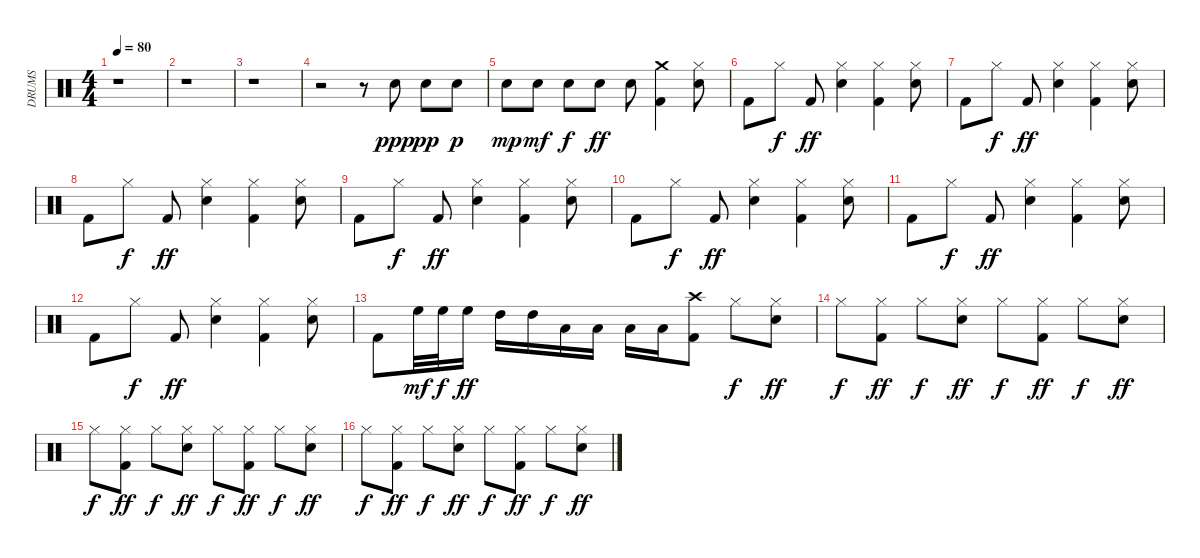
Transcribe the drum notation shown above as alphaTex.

\track ("DRUMS                               " "DRUMS     ") {instrument percussion}
\staff {score}
\articulation defaults
\ts (4 4)
\tempo 80
\clef neutral
\ks c
r.1{dy ff} |
r.1 |
r.1 |
r.2 r.8 "Snare (hit) 2".8{dy ppp} "Snare (hit) 2".8{dy pp} "Snare (hit) 2".8{dy p} |
"Snare (hit) 2".8{dy mp} "Snare (hit) 2".8{dy mf} "Snare (hit) 2".8{dy f} "Snare (hit) 2".8{dy ff} "Snare (hit) 2".8 ("Crash medium (hit)" "Kick (hit) 2").4 ("Snare (hit) 2" "Hi-Hat (closed)").8 |
"Kick (hit) 2".8 "Hi-Hat (closed)".8{dy f} "Kick (hit) 2".8{dy ff} ("Snare (hit) 2" "Hi-Hat (closed)").4 ("Kick (hit) 2" "Hi-Hat (closed)").4 ("Snare (hit) 2" "Hi-Hat (closed)").8 |
"Kick (hit) 2".8 "Hi-Hat (closed)".8{dy f} "Kick (hit) 2".8{dy ff} ("Snare (hit) 2" "Hi-Hat (closed)").4 ("Kick (hit) 2" "Hi-Hat (closed)").4 ("Snare (hit) 2" "Hi-Hat (closed)").8 |
"Kick (hit) 2".8 "Hi-Hat (closed)".8{dy f} "Kick (hit) 2".8{dy ff} ("Snare (hit) 2" "Hi-Hat (closed)").4 ("Kick (hit) 2" "Hi-Hat (closed)").4 ("Snare (hit) 2" "Hi-Hat (closed)").8 |
"Kick (hit) 2".8 "Hi-Hat (closed)".8{dy f} "Kick (hit) 2".8{dy ff} ("Snare (hit) 2" "Hi-Hat (closed)").4 ("Kick (hit) 2" "Hi-Hat (closed)").4 ("Snare (hit) 2" "Hi-Hat (closed)").8 |
"Kick (hit) 2".8 "Hi-Hat (closed)".8{dy f} "Kick (hit) 2".8{dy ff} ("Snare (hit) 2" "Hi-Hat (closed)").4 ("Kick (hit) 2" "Hi-Hat (closed)").4 ("Snare (hit) 2" "Hi-Hat (closed)").8 |
"Kick (hit) 2".8 "Hi-Hat (closed)".8{dy f} "Kick (hit) 2".8{dy ff} ("Snare (hit) 2" "Hi-Hat (closed)").4 ("Kick (hit) 2" "Hi-Hat (closed)").4 ("Snare (hit) 2" "Hi-Hat (closed)").8 |
"Kick (hit) 2".8 "Hi-Hat (closed)".8{dy f} "Kick (hit) 2".8{dy ff} ("Snare (hit) 2" "Hi-Hat (closed)").4 ("Kick (hit) 2" "Hi-Hat (closed)").4 ("Snare (hit) 2" "Hi-Hat (closed)").8 |
"Kick (hit) 2".8 "High Floor Tom (hit)".32{dy mf} "High Floor Tom (hit)".32{dy f} "High Floor Tom (hit)".16{dy ff} "High Tom (hit)".16 "High Tom (hit)".16 "Low Tom (hit)".16 "Low Tom (hit)".16 "Low Floor Tom (hit)".16 "Low Floor Tom (hit)".16 ("Kick (hit) 2" "Crash high (hit)").8 "Hi-Hat (closed)".8{dy f} ("Snare (hit) 2" "Hi-Hat (closed)").8{dy ff} |
"Hi-Hat (closed)".8{dy f} ("Kick (hit) 2" "Hi-Hat (closed)").8{dy ff} "Hi-Hat (closed)".8{dy f} ("Snare (hit) 2" "Hi-Hat (closed)").8{dy ff} "Hi-Hat (closed)".8{dy f} ("Kick (hit) 2" "Hi-Hat (closed)").8{dy ff} "Hi-Hat (closed)".8{dy f} ("Snare (hit) 2" "Hi-Hat (closed)").8{dy ff} |
"Hi-Hat (closed)".8{dy f} ("Kick (hit) 2" "Hi-Hat (closed)").8{dy ff} "Hi-Hat (closed)".8{dy f} ("Snare (hit) 2" "Hi-Hat (closed)").8{dy ff} "Hi-Hat (closed)".8{dy f} ("Kick (hit) 2" "Hi-Hat (closed)").8{dy ff} "Hi-Hat (closed)".8{dy f} ("Snare (hit) 2" "Hi-Hat (closed)").8{dy ff} |
"Hi-Hat (closed)".8{dy f} ("Kick (hit) 2" "Hi-Hat (closed)").8{dy ff} "Hi-Hat (closed)".8{dy f} ("Snare (hit) 2" "Hi-Hat (closed)").8{dy ff} "Hi-Hat (closed)".8{dy f} ("Kick (hit) 2" "Hi-Hat (closed)").8{dy ff} "Hi-Hat (closed)".8{dy f} ("Snare (hit) 2" "Hi-Hat (closed)").8{dy ff}
